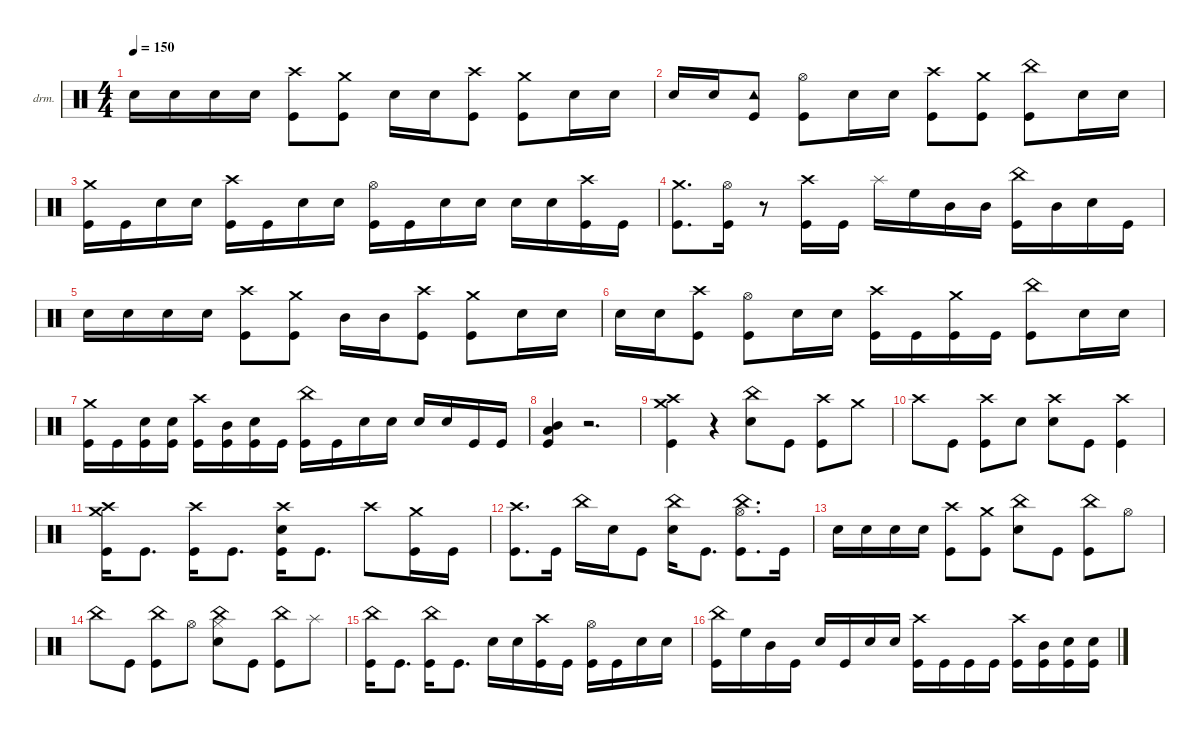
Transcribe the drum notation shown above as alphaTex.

\defaultSystemsLayout 4
\hideDynamics
\bracketExtendMode nobrackets
\firstSystemTrackNameOrientation horizontal
\track ("Drumkit" "drm.") {instrument percussion}
\staff {score}
\articulation defaults
\ts (4 4)
\tempo 150
\clef neutral
\ks c "Snare (hit) 2".16{dy f} "Snare (hit) 2".16{dy fff} "Snare (hit) 2".16{dy ff} "Snare (hit) 2".16{dy fff}
("Kick (hit)" "Crash high (hit)"{acc #}).8 ("Kick (hit)" "Crash medium (hit)").8 "Snare (hit) 2".16{dy ff} "Snare (hit) 2".16{dy fff} ("Kick (hit)" "Crash high (hit)"{acc #}).8 ("Kick (hit)" "Crash medium (hit)").8 "Snare (hit) 2".16 "Snare (hit) 2".16{dy f} |
"Snare (hit) 2".16{dy fff} "Snare (hit) 2".16{dy f} ("Kick (hit)" "Tambourine (hit)"{acc #}).8{dy fff} ("Kick (hit)" "Hi-Hat (open)"{acc #}).8 "Snare (hit) 2".16 "Snare (hit) 2".16{dy ff} ("Kick (hit)" "Crash high (hit)"{acc #}).8 ("Kick (hit)" "Crash medium (hit)").8 ("Kick (hit)" "China (hit)").8 "Snare (hit) 2".16{dy f} "Snare (hit) 2".16{dy fff} |
("Kick (hit)" "Crash medium (hit)").16 "Kick (hit)".16 "Snare (hit) 2".16{dy f} "Snare (hit) 2".16{dy fff} ("Kick (hit)" "Crash high (hit)"{acc #}).16 "Kick (hit)".16 "Snare (hit) 2".16{dy ff} "Snare (hit) 2".16{dy fff} ("Kick (hit)" "Hi-Hat (open)"{acc #}).16 "Kick (hit)".16 "Snare (hit) 2".16{dy ff} "Snare (hit) 2".16{dy fff} "Snare (hit) 2".16 "Snare (hit) 2".16 ("Kick (hit)" "Crash high (hit)"{acc #}).16 "Kick (hit)".16 |
("Kick (hit)" "Crash medium (hit)").8{d} ("Kick (hit)" "Hi-Hat (open)"{acc #}).16 r.8 ("Kick (hit)" "Crash high (hit)"{acc #}).16 "Kick (hit)".16 "Splash (hit)".16{dy ff} "High Floor Tom (hit)".16 "Mid Tom (hit)".16 "Mid Tom (hit)".16 ("Kick (hit)" "China (hit)").16 "Mid Tom (hit)".16 "Snare (hit) 2".16 "Kick (hit)".16{dy fff} |
"Snare (hit) 2".16{dy ff} "Snare (hit) 2".16{dy fff} "Snare (hit) 2".16{dy ff} "Snare (hit) 2".16{dy fff} ("Kick (hit)" "Crash high (hit)"{acc #}).8 ("Kick (hit)" "Crash medium (hit)").8 "Mid Tom (hit)".16{dy ff} "Mid Tom (hit)".16 ("Kick (hit)" "Crash high (hit)"{acc #}).8 ("Kick (hit)" "Crash medium (hit)").8 "Snare (hit) 2".16{dy f} "Snare (hit) 2".16{dy fff} |
"Snare (hit) 2".16{dy f} "Snare (hit) 2".16{dy fff} ("Kick (hit)" "Crash high (hit)"{acc #}).8 ("Kick (hit)" "Hi-Hat (open)"{acc #}).8 "Snare (hit) 2".16 "Snare (hit) 2".16{dy ff} ("Kick (hit)" "Crash high (hit)"{acc #}).16 "Kick (hit)".16{dy fff} ("Kick (hit)" "Crash medium (hit)").16 "Kick (hit)".16 ("Kick (hit)" "China (hit)").8 "Snare (hit) 2".16 "Snare (hit) 2".16{dy f} |
("Kick (hit)" "Crash medium (hit)").16{dy fff} "Kick (hit)".16 ("Kick (hit)" "Snare (hit) 2").16 ("Kick (hit)" "Snare (hit) 2").16 ("Kick (hit)" "Crash high (hit)"{acc #}).16 ("Kick (hit)" "Mid Tom (hit)").16 ("Kick (hit)" "Snare (hit) 2").16{dy ff} "Kick (hit)".16{dy fff} ("Kick (hit)" "China (hit)").16{dy ff} "Kick (hit)".16{dy fff} "Snare (hit) 2".16{dy ff} "Snare (hit) 2".16{dy fff} "Snare (hit) 2".16{dy ff} "Snare (hit) 2".16{dy fff} "Kick (hit)".16{dy ff} "Kick (hit)".16{dy fff} |
("Kick (hit)" "Low Tom (hit)" "Mid Tom (hit)").4{dy ff} r.2{d} |
("Kick (hit)" "Crash high (hit)"{acc #} "Crash medium (hit)").4{dy fff} r.4 ("Snare (hit) 2" "China (hit)").8 "Kick (hit)".8 ("Kick (hit)" "Crash high (hit)"{acc #}).8 "Crash medium (hit)".8{dy ff} |
"Crash high (hit)"{acc #}.8 "Kick (hit)".8{dy fff} ("Kick (hit)" "Crash high (hit)"{acc #}).8 "Snare (hit) 2".8{dy pp} ("Snare (hit) 2" "Crash high (hit)"{acc #}).8{dy fff} "Kick (hit)".8 ("Kick (hit)" "Crash high (hit)"{acc #}).4 |
("Kick (hit)" "Crash high (hit)"{acc #} "Crash medium (hit)").16 "Kick (hit)".8{d} ("Kick (hit)" "Crash high (hit)"{acc #}).16 "Kick (hit)".8{d} ("Kick (hit)" "Snare (hit) 2" "Crash high (hit)"{acc #}).16 "Kick (hit)".8{d} "Crash high (hit)"{acc #}.8{dy ff} ("Kick (hit)" "Crash medium (hit)").16 "Kick (hit)".16{dy fff} |
("Kick (hit)" "Crash high (hit)"{acc #}).8{d} "Kick (hit)".16 "China (hit)".16{dy ff} "Snare (hit) 2".16{dy pp} "Kick (hit)".8{dy fff} ("Snare (hit) 2" "China (hit)").16 "Kick (hit)".8{d} ("Kick (hit)" "Hi-Hat (open)"{acc #} "China (hit)").8{d} "Kick (hit)".16 |
"Snare (hit) 2".16{dy ff} "Snare (hit) 2".16{dy fff} "Snare (hit) 2".16{dy ff} "Snare (hit) 2".16{dy fff} ("Kick (hit)" "Crash high (hit)"{acc #}).8 ("Kick (hit)" "Crash medium (hit)").8 ("Snare (hit) 2" "China (hit)").8 "Kick (hit)".8 ("Kick (hit)" "China (hit)").8 "Hi-Hat (open)"{acc #}.8{dy ff} |
"China (hit)".8 "Kick (hit)".8{dy fff} ("Kick (hit)" "China (hit)").8 "Hi-Hat (open)"{acc #}.8{dy ff} ("Snare (hit) 2" "Hi-Hat (closed)"{acc #} "China (hit)").8 "Kick (hit)".8{dy fff} ("Kick (hit)" "China (hit)").8 "Splash (hit)".8{dy ff} |
("Kick (hit)" "China (hit)").16{dy fff} "Kick (hit)".8{d} ("Kick (hit)" "China (hit)").16 "Kick (hit)".8{d} "Snare (hit) 2".16{dy ff} "Snare (hit) 2".16{dy fff} ("Kick (hit)" "Crash high (hit)"{acc #}).16{dy ff} "Kick (hit)".16{dy fff} ("Kick (hit)" "Hi-Hat (open)"{acc #}).16 "Kick (hit)".16 "Snare (hit) 2".16{dy ff} "Snare (hit) 2".16{dy fff} |
("Kick (hit)" "China (hit)").16 "High Floor Tom (hit)".16{dy ff} "Mid Tom (hit)".16 "Kick (hit)".16{dy fff} "Snare (hit) 2".16 "Kick (hit)".16 "Snare (hit) 2".16{dy ff} "Snare (hit) 2".16{dy fff} ("Kick (hit)" "Crash high (hit)"{acc #}).16 "Kick (hit)".16 "Kick (hit)".16 "Kick (hit)".16 ("Kick (hit)" "Crash high (hit)"{acc #}).16 ("Kick (hit)" "Mid Tom (hit)").16 ("Kick (hit)" "Snare (hit) 2").16 ("Kick (hit)" "Snare (hit) 2").16{dy ff}
